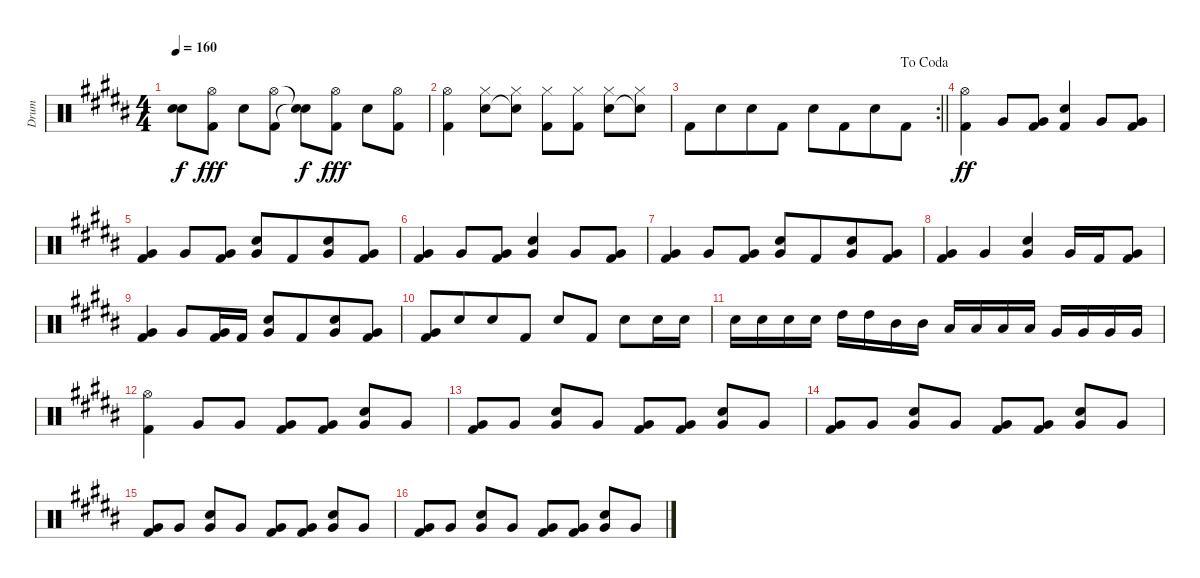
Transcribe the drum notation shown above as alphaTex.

\track ("Drum" "Drum") {instrument percussion}
\staff {score}
\articulation defaults
\ts (4 4)
\tempo 160
\clef neutral
\ks b
("Snare (hit)"{t} "Snare (hit)"{t}).8{dy f} ("Hi-Hat (open)" "Kick (hit) 2").8{dy fff} "Snare (hit) 2".8 ("Hi-Hat (open)" "Kick (hit) 2").8 ("Snare (hit)"{t} "Snare (hit)"{t}).8{dy f} ("Hi-Hat (open)" "Kick (hit) 2").8{dy fff} "Snare (hit) 2".8 ("Hi-Hat (open)" "Kick (hit) 2").8 |
("Hi-Hat (open)" "Kick (hit) 2").4 ("Hi-Hat (closed)" "Snare (hit) 2").8 ("Hi-Hat (closed)" "Snare (hit)"{t}).8 ("Hi-Hat (closed)" "Kick (hit) 2").8 ("Hi-Hat (closed)" "Kick (hit) 2").8 ("Hi-Hat (closed)" "Snare (hit) 2").8 ("Hi-Hat (closed)" "Snare (hit)"{t}).8 |
\rc 2
\jump dacoda
\barLineRight lightlight "Kick (hit) 2".8{beam Down} "Snare (hit) 2".8{beam Down beam merge} "Snare (hit) 2".8{beam Down} "Kick (hit) 2".8{beam Down} "Snare (hit) 2".8{beam Down} "Kick (hit) 2".8{beam Down beam merge} "Snare (hit) 2".8{beam Down} "Kick (hit) 2".8{beam Down}
|
("Hi-Hat (open)" "Kick (hit) 2").4{dy ff} "Very Low Tom (hit)".8 ("Very Low Tom (hit)" "Kick (hit) 2").8 ("Snare (hit) 2" "Kick (hit) 2").4 "Very Low Tom (hit)".8 ("Very Low Tom (hit)" "Kick (hit) 2").8 |
("Very Low Tom (hit)" "Kick (hit) 2").4 "Very Low Tom (hit)".8 ("Very Low Tom (hit)" "Kick (hit) 2").8 ("Very Low Tom (hit)" "Snare (hit) 2").8 "Kick (hit) 2".8{beam merge} ("Very Low Tom (hit)" "Snare (hit) 2").8 ("Very Low Tom (hit)" "Kick (hit) 2").8 |
("Very Low Tom (hit)" "Kick (hit) 2").4 "Very Low Tom (hit)".8 ("Very Low Tom (hit)" "Kick (hit) 2").8 ("Very Low Tom (hit)" "Snare (hit) 2").4 "Very Low Tom (hit)".8 ("Very Low Tom (hit)" "Kick (hit) 2").8 |
("Very Low Tom (hit)" "Kick (hit) 2").4 "Very Low Tom (hit)".8 ("Very Low Tom (hit)" "Kick (hit) 2").8 ("Very Low Tom (hit)" "Snare (hit) 2").8 "Kick (hit) 2".8{beam merge} ("Very Low Tom (hit)" "Snare (hit) 2").8 ("Very Low Tom (hit)" "Kick (hit) 2").8 |
("Very Low Tom (hit)" "Kick (hit) 2").4 "Very Low Tom (hit)".4 ("Very Low Tom (hit)" "Snare (hit) 2").4 "Very Low Tom (hit)".16 "Kick (hit) 2".16 ("Very Low Tom (hit)" "Kick (hit) 2").8 |
("Very Low Tom (hit)" "Kick (hit) 2").4 "Very Low Tom (hit)".8 ("Very Low Tom (hit)" "Kick (hit) 2").16 "Kick (hit) 2".16 ("Very Low Tom (hit)" "Snare (hit) 2").8 "Kick (hit) 2".8{beam merge} ("Very Low Tom (hit)" "Snare (hit) 2").8 ("Very Low Tom (hit)" "Kick (hit) 2").8 |
("Very Low Tom (hit)" "Kick (hit) 2").8 "Snare (hit) 2".8{beam merge} "Snare (hit) 2".8 "Kick (hit) 2".8 "Snare (hit) 2".8 "Kick (hit) 2".8 "Snare (hit) 2".8 "Snare (hit) 2".16 "Snare (hit) 2".16 |
"Snare (hit) 2".16 "Snare (hit) 2".16 "Snare (hit) 2".16 "Snare (hit) 2".16 "High Tom (hit)".16 "High Tom (hit)".16 "Mid Tom (hit)".16 "Mid Tom (hit)".16 "Low Tom (hit)".16 "Low Tom (hit)".16 "Low Tom (hit)".16 "Low Tom (hit)".16 "Very Low Tom (hit)".16 "Very Low Tom (hit)".16 "Very Low Tom (hit)".16 "Very Low Tom (hit)".16 |
("Hi-Hat (open)" "Kick (hit) 2").4 "Very Low Tom (hit)".8 "Very Low Tom (hit)".8 ("Very Low Tom (hit)" "Kick (hit) 2").8 ("Very Low Tom (hit)" "Kick (hit) 2").8 ("Very Low Tom (hit)" "Snare (hit) 2").8 "Very Low Tom (hit)".8 |
("Very Low Tom (hit)" "Kick (hit) 2").8 "Very Low Tom (hit)".8 ("Very Low Tom (hit)" "Snare (hit) 2").8 "Very Low Tom (hit)".8 ("Very Low Tom (hit)" "Kick (hit) 2").8 ("Very Low Tom (hit)" "Kick (hit) 2").8 ("Very Low Tom (hit)" "Snare (hit) 2").8 "Very Low Tom (hit)".8 |
("Very Low Tom (hit)" "Kick (hit) 2").8 "Very Low Tom (hit)".8 ("Very Low Tom (hit)" "Snare (hit) 2").8 "Very Low Tom (hit)".8 ("Very Low Tom (hit)" "Kick (hit) 2").8 ("Very Low Tom (hit)" "Kick (hit) 2").8 ("Very Low Tom (hit)" "Snare (hit) 2").8 "Very Low Tom (hit)".8 |
("Very Low Tom (hit)" "Kick (hit) 2").8 "Very Low Tom (hit)".8 ("Very Low Tom (hit)" "Snare (hit) 2").8 "Very Low Tom (hit)".8 ("Very Low Tom (hit)" "Kick (hit) 2").8 ("Very Low Tom (hit)" "Kick (hit) 2").8 ("Very Low Tom (hit)" "Snare (hit) 2").8 "Very Low Tom (hit)".8 |
("Very Low Tom (hit)" "Kick (hit) 2").8 "Very Low Tom (hit)".8 ("Very Low Tom (hit)" "Snare (hit) 2").8 "Very Low Tom (hit)".8 ("Very Low Tom (hit)" "Kick (hit) 2").8 ("Very Low Tom (hit)" "Kick (hit) 2").8 ("Very Low Tom (hit)" "Snare (hit) 2").8 "Very Low Tom (hit)".8
